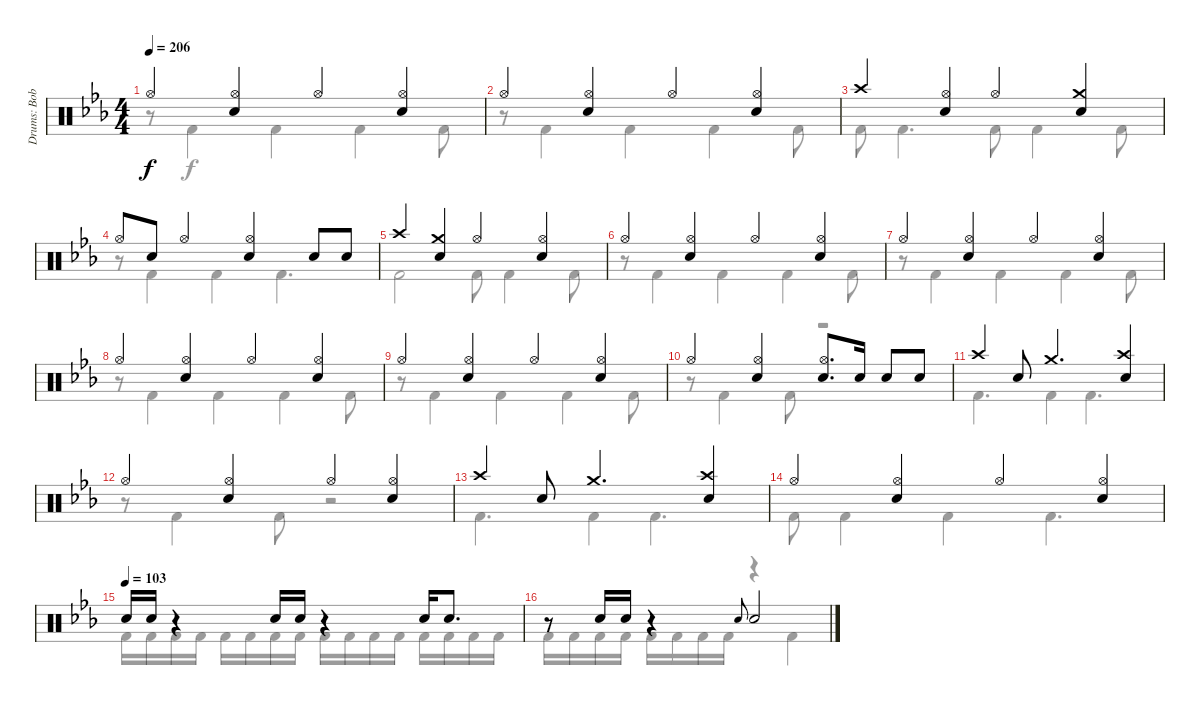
\track ("Drums: Bobby" "Drums: Bob") {instrument percussion}
\staff {score}
\articulation defaults
\voice
\ts (4 4)
\tempo 206
\clef neutral
\ks eb "Hi-Hat (open)".4{dy f}
("Hi-Hat (open)" "Snare (hit) 2").4 "Hi-Hat (open)".4 ("Hi-Hat (open)" "Snare (hit) 2").4 |
"Hi-Hat (open)".4 ("Hi-Hat (open)" "Snare (hit) 2").4 "Hi-Hat (open)".4 ("Hi-Hat (open)" "Snare (hit) 2").4 |
"Crash high (hit)".4 ("Hi-Hat (open)" "Snare (hit) 2").4 "Hi-Hat (open)".4 ("Crash medium (hit)" "Snare (hit) 2").4 |
"Hi-Hat (open)".8 "Snare (hit) 2".8 "Hi-Hat (open)".4 ("Hi-Hat (open)" "Snare (hit) 2").4 "Electric Snare (hit)".8 "Electric Snare (hit)".8 |
"Crash high (hit)".4 ("Crash medium (hit)" "Snare (hit) 2").4 "Hi-Hat (open)".4 ("Hi-Hat (open)" "Snare (hit) 2").4 |
"Hi-Hat (open)".4 ("Hi-Hat (open)" "Snare (hit) 2").4 "Hi-Hat (open)".4 ("Hi-Hat (open)" "Snare (hit) 2").4 |
"Hi-Hat (open)".4 ("Hi-Hat (open)" "Snare (hit) 2").4 "Hi-Hat (open)".4 ("Hi-Hat (open)" "Snare (hit) 2").4 |
"Hi-Hat (open)".4 ("Hi-Hat (open)" "Snare (hit) 2").4 "Hi-Hat (open)".4 ("Hi-Hat (open)" "Snare (hit) 2").4 |
"Hi-Hat (open)".4 ("Hi-Hat (open)" "Snare (hit) 2").4 "Hi-Hat (open)".4 ("Hi-Hat (open)" "Snare (hit) 2").4 |
"Hi-Hat (open)".4 ("Hi-Hat (open)" "Snare (hit) 2").4 ("Hi-Hat (open)" "Electric Snare (hit)").8{d} "Electric Snare (hit)".16 "Snare (hit) 2".8 "Snare (hit) 2".8 |
"Crash high (hit)".4 "Snare (hit) 2".8 "Crash medium (hit)".4{d} ("Crash high (hit)" "Snare (hit) 2").4 |
"Hi-Hat (open)".4 ("Hi-Hat (open)" "Snare (hit) 2").4 "Hi-Hat (open)".4 ("Hi-Hat (open)" "Snare (hit) 2").4 |
"Crash high (hit)".4 "Snare (hit) 2".8 "Crash medium (hit)".4{d} ("Crash high (hit)" "Snare (hit) 2").4 |
"Hi-Hat (open)".4 ("Hi-Hat (open)" "Snare (hit) 2").4 "Hi-Hat (open)".4 ("Hi-Hat (open)" "Snare (hit) 2").4 |
\tempo (103)
"Electric Snare (hit)".16 "Electric Snare (hit)".16 r.4 "Electric Snare (hit)".16 "Electric Snare (hit)".16 r.4 "Electric Snare (hit)".16 "Electric Snare (hit)".8{d} |
r.8 "Electric Snare (hit)".16 "Electric Snare (hit)".16 r.4 "Electric Snare (hit)".8{gr onbeat} "Snare (hit) 2".2
\voice
\clef neutral
\ottava regular
\simile none
\ks eb
r.8{dy f} "Kick (hit) 2".4 "Kick (hit) 2".4 "Kick (hit) 2".4 "Kick (hit) 2".8 |
r.8 "Kick (hit) 2".4 "Kick (hit) 2".4 "Kick (hit) 2".4 "Kick (hit) 2".8 |
"Kick (hit) 2".8 "Kick (hit) 2".4{d} "Kick (hit) 2".8 "Kick (hit) 2".4 "Kick (hit) 2".8 |
r.8 "Kick (hit) 2".4 "Kick (hit) 2".4 "Kick (hit) 2".4{d} |
"Kick (hit) 2".2 "Kick (hit) 2".8 "Kick (hit) 2".4 "Kick (hit) 2".8 |
r.8 "Kick (hit) 2".4 "Kick (hit) 2".4 "Kick (hit) 2".4 "Kick (hit) 2".8 |
r.8 "Kick (hit) 2".4 "Kick (hit) 2".4 "Kick (hit) 2".4 "Kick (hit) 2".8 |
r.8 "Kick (hit) 2".4 "Kick (hit) 2".4 "Kick (hit) 2".4 "Kick (hit) 2".8 |
r.8 "Kick (hit) 2".4 "Kick (hit) 2".4 "Kick (hit) 2".4 "Kick (hit) 2".8 |
r.8 "Kick (hit) 2".4 "Kick (hit) 2".8 r.2 |
"Kick (hit) 2".4{d} "Kick (hit) 2".4 "Kick (hit) 2".4{d} |
r.8 "Kick (hit) 2".4 "Kick (hit) 2".8 r.2 |
"Kick (hit) 2".4{d} "Kick (hit) 2".4 "Kick (hit) 2".4{d} |
"Kick (hit) 2".8 "Kick (hit) 2".4 "Kick (hit) 2".4 "Kick (hit) 2".4{d} |
"Kick (hit) 2".16 "Kick (hit) 2".16 "Kick (hit) 2".16 "Kick (hit) 2".16 "Kick (hit) 2".16 "Kick (hit) 2".16 "Kick (hit) 2".16 "Kick (hit) 2".16 "Kick (hit) 2".16 "Kick (hit) 2".16 "Kick (hit) 2".16 "Kick (hit) 2".16 "Kick (hit) 2".16 "Kick (hit) 2".16 "Kick (hit) 2".16 "Kick (hit) 2".16 |
"Kick (hit) 2".16 "Kick (hit) 2".16 "Kick (hit) 2".16 "Kick (hit) 2".16 "Kick (hit) 2".16 "Kick (hit) 2".16 "Kick (hit) 2".16 "Kick (hit) 2".16 r.4 "Kick (hit) 2".4
